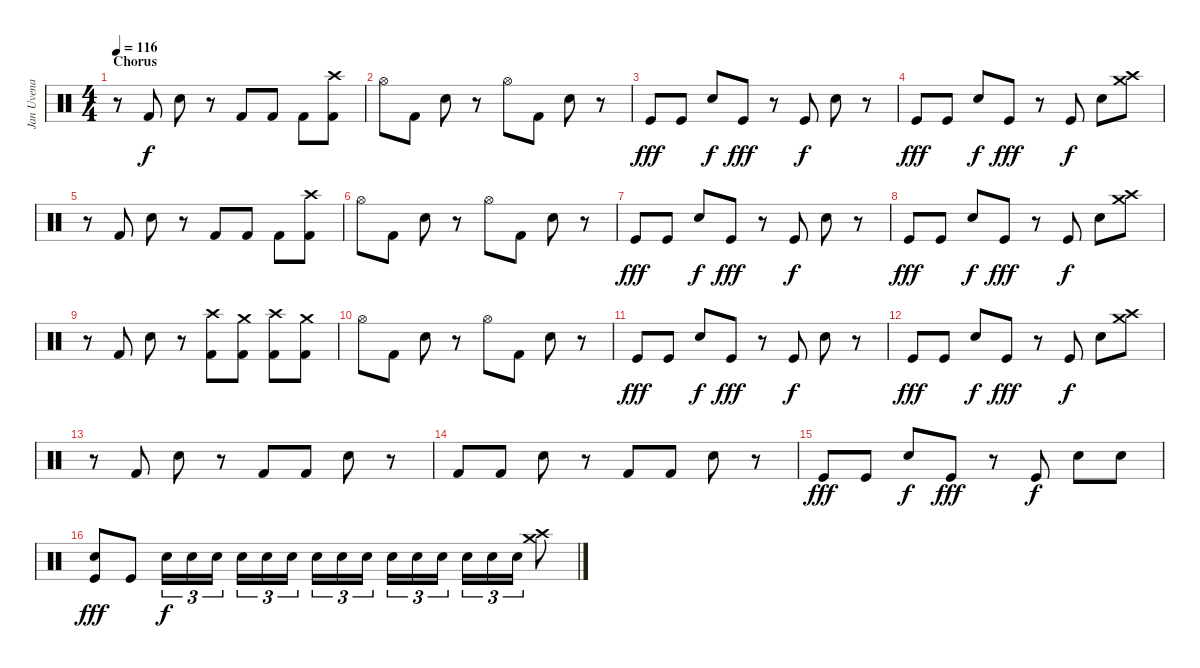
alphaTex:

\track ("Jan Uvena" "Jan Uvena") {instrument percussion}
\staff {score}
\articulation defaults
\ts (4 4)
\section ("" "Chorus")
\tempo 116
\clef neutral
\ks c
r.8{dy f} "Kick (hit) 2".8 "Snare (hit) 2".8 r.8 "Kick (hit) 2".8 "Kick (hit) 2".8 "Kick (hit) 2".8 ("Crash high (hit)" "Kick (hit) 2").8 |
"Hi-Hat (open)".8 "Kick (hit) 2".8 "Snare (hit) 2".8 r.8 "Hi-Hat (open)".8 "Kick (hit) 2".8 "Snare (hit) 2".8 r.8 |
"Kick (hit)".8{dy fff} "Kick (hit)".8 "Snare (hit) 2".8{dy f} "Kick (hit)".8{dy fff} r.8 "Kick (hit)".8{dy f} "Snare (hit) 2".8 r.8 |
"Kick (hit)".8{dy fff} "Kick (hit)".8 "Snare (hit) 2".8{dy f} "Kick (hit)".8{dy fff} r.8 "Kick (hit)".8{dy f} "Snare (hit) 2".8 ("Crash medium (hit)" "Crash high (hit)").8 |
r.8 "Kick (hit) 2".8 "Snare (hit) 2".8 r.8 "Kick (hit) 2".8 "Kick (hit) 2".8 "Kick (hit) 2".8 ("Crash high (hit)" "Kick (hit) 2").8 |
"Hi-Hat (open)".8 "Kick (hit) 2".8 "Snare (hit) 2".8 r.8 "Hi-Hat (open)".8 "Kick (hit) 2".8 "Snare (hit) 2".8 r.8 |
"Kick (hit)".8{dy fff} "Kick (hit)".8 "Snare (hit) 2".8{dy f} "Kick (hit)".8{dy fff} r.8 "Kick (hit)".8{dy f} "Snare (hit) 2".8 r.8 |
"Kick (hit)".8{dy fff} "Kick (hit)".8 "Snare (hit) 2".8{dy f} "Kick (hit)".8{dy fff} r.8 "Kick (hit)".8{dy f} "Snare (hit) 2".8 ("Crash medium (hit)" "Crash high (hit)").8 |
r.8 "Kick (hit) 2".8 "Snare (hit) 2".8 r.8 ("Crash high (hit)" "Kick (hit) 2").8 ("Crash medium (hit)" "Kick (hit) 2").8 ("Crash high (hit)" "Kick (hit) 2").8 ("Crash medium (hit)" "Kick (hit) 2").8 |
"Hi-Hat (open)".8 "Kick (hit) 2".8 "Snare (hit) 2".8 r.8 "Hi-Hat (open)".8 "Kick (hit) 2".8 "Snare (hit) 2".8 r.8 |
"Kick (hit)".8{dy fff} "Kick (hit)".8 "Snare (hit) 2".8{dy f} "Kick (hit)".8{dy fff} r.8 "Kick (hit)".8{dy f} "Snare (hit) 2".8 r.8 |
"Kick (hit)".8{dy fff} "Kick (hit)".8 "Snare (hit) 2".8{dy f} "Kick (hit)".8{dy fff} r.8 "Kick (hit)".8{dy f} "Snare (hit) 2".8 ("Crash medium (hit)" "Crash high (hit)").8 |
r.8 "Kick (hit) 2".8 "Snare (hit) 2".8 r.8 "Kick (hit) 2".8 "Kick (hit) 2".8 "Snare (hit) 2".8 r.8 |
"Kick (hit) 2".8 "Kick (hit) 2".8 "Snare (hit) 2".8 r.8 "Kick (hit) 2".8 "Kick (hit) 2".8 "Snare (hit) 2".8 r.8 |
"Kick (hit)".8{dy fff} "Kick (hit)".8 "Snare (hit) 2".8{dy f} "Kick (hit)".8{dy fff} r.8 "Kick (hit)".8{dy f} "Snare (hit) 2".8 "Snare (hit) 2".8 |
("Snare (hit) 2" "Kick (hit)").8{dy fff} "Kick (hit)".8 "Snare (hit) 2".16{tu (3 2) dy f} "Snare (hit) 2".16{tu (3 2)} "Snare (hit) 2".16{tu (3 2)} "Snare (hit) 2".16{tu (3 2)} "Snare (hit) 2".16{tu (3 2)} "Snare (hit) 2".16{tu (3 2)} "Snare (hit) 2".16{tu (3 2)} "Snare (hit) 2".16{tu (3 2)} "Snare (hit) 2".16{tu (3 2)} "Snare (hit) 2".16{tu (3 2)} "Snare (hit) 2".16{tu (3 2)} "Snare (hit) 2".16{tu (3 2)} "Snare (hit) 2".16{tu (3 2)} "Snare (hit) 2".16{tu (3 2)} "Snare (hit) 2".16{tu (3 2)} ("Crash medium (hit)" "Crash high (hit)").8
